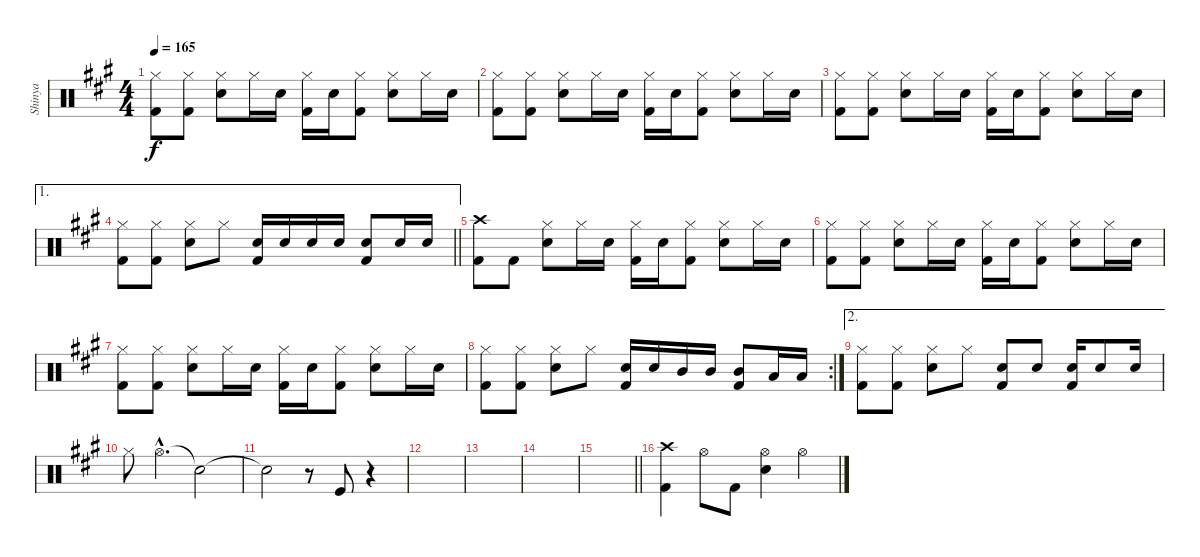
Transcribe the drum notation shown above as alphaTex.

\track ("Shinya" "Shinya") {instrument percussion}
\staff {score}
\articulation defaults
\ts (4 4)
\tempo 165
\clef neutral
\ks a
("Hi-Hat (closed)" "Kick (hit) 2").8{dy f} ("Hi-Hat (closed)" "Kick (hit) 2").8 ("Hi-Hat (closed)" "Snare (hit) 2").8 "Hi-Hat (closed)".16 "Snare (hit) 2".16 ("Hi-Hat (closed)" "Kick (hit) 2").16 "Snare (hit) 2".16 ("Hi-Hat (closed)" "Kick (hit) 2").8 ("Hi-Hat (closed)" "Snare (hit) 2").8 "Hi-Hat (closed)".16 "Snare (hit) 2".16 |
("Hi-Hat (closed)" "Kick (hit) 2").8 ("Hi-Hat (closed)" "Kick (hit) 2").8 ("Hi-Hat (closed)" "Snare (hit) 2").8 "Hi-Hat (closed)".16 "Snare (hit) 2".16 ("Hi-Hat (closed)" "Kick (hit) 2").16 "Snare (hit) 2".16 ("Hi-Hat (closed)" "Kick (hit) 2").8 ("Hi-Hat (closed)" "Snare (hit) 2").8 "Hi-Hat (closed)".16 "Snare (hit) 2".16 |
("Hi-Hat (closed)" "Kick (hit) 2").8 ("Hi-Hat (closed)" "Kick (hit) 2").8 ("Hi-Hat (closed)" "Snare (hit) 2").8 "Hi-Hat (closed)".16 "Snare (hit) 2".16 ("Hi-Hat (closed)" "Kick (hit) 2").16 "Snare (hit) 2".16 ("Hi-Hat (closed)" "Kick (hit) 2").8 ("Hi-Hat (closed)" "Snare (hit) 2").8 "Hi-Hat (closed)".16 "Snare (hit) 2".16 |
\ae 1
\barLineRight lightlight
("Hi-Hat (closed)" "Kick (hit) 2").8 ("Hi-Hat (closed)" "Kick (hit) 2").8 ("Hi-Hat (closed)" "Snare (hit) 2").8 "Hi-Hat (closed)".8 ("Snare (hit) 2" "Kick (hit) 2").16 "Snare (hit) 2".16 "Snare (hit) 2".16 "Snare (hit) 2".16 ("Snare (hit) 2" "Kick (hit) 2").8 "Snare (hit) 2".16 "Snare (hit) 2".16 |
("Crash high (hit)" "Kick (hit) 2").8 "Kick (hit) 2".8 ("Hi-Hat (closed)" "Snare (hit) 2").8 "Hi-Hat (closed)".16 "Snare (hit) 2".16 ("Hi-Hat (closed)" "Kick (hit) 2").16 "Snare (hit) 2".16 ("Hi-Hat (closed)" "Kick (hit) 2").8 ("Hi-Hat (closed)" "Snare (hit) 2").8 "Hi-Hat (closed)".16 "Snare (hit) 2".16 |
("Hi-Hat (closed)" "Kick (hit) 2").8 ("Hi-Hat (closed)" "Kick (hit) 2").8 ("Hi-Hat (closed)" "Snare (hit) 2").8 "Hi-Hat (closed)".16 "Snare (hit) 2".16 ("Hi-Hat (closed)" "Kick (hit) 2").16 "Snare (hit) 2".16 ("Hi-Hat (closed)" "Kick (hit) 2").8 ("Hi-Hat (closed)" "Snare (hit) 2").8 "Hi-Hat (closed)".16 "Snare (hit) 2".16 |
("Hi-Hat (closed)" "Kick (hit) 2").8 ("Hi-Hat (closed)" "Kick (hit) 2").8 ("Hi-Hat (closed)" "Snare (hit) 2").8 "Hi-Hat (closed)".16 "Snare (hit) 2".16 ("Hi-Hat (closed)" "Kick (hit) 2").16 "Snare (hit) 2".16 ("Hi-Hat (closed)" "Kick (hit) 2").8 ("Hi-Hat (closed)" "Snare (hit) 2").8 "Hi-Hat (closed)".16 "Snare (hit) 2".16 |
\rc 2
("Hi-Hat (closed)" "Kick (hit) 2").8 ("Hi-Hat (closed)" "Kick (hit) 2").8 ("Hi-Hat (closed)" "Snare (hit) 2").8 "Hi-Hat (closed)".8 ("Snare (hit) 2" "Kick (hit) 2").16 "Snare (hit) 2".16 "Mid Tom (hit)".16 "Mid Tom (hit)".16 ("Mid Tom (hit)" "Kick (hit) 2").8 "Low Tom (hit)".16 "Low Tom (hit)".16 |
\ae 2
("Hi-Hat (closed)" "Kick (hit) 2").8 ("Hi-Hat (closed)" "Kick (hit) 2").8 ("Hi-Hat (closed)" "Snare (hit) 2").8 "Hi-Hat (closed)".8 ("Snare (hit) 2" "Kick (hit) 2").8 "Snare (hit) 2".8 ("Snare (hit) 2" "Kick (hit) 2").16 "Snare (hit) 2".8 "Snare (hit) 2".16 |
"Hi-Hat (closed)".8 "Hi-Hat (open)"{hac}.4{d} "Snare (hit)"{t}.2 |
"Snare (hit)"{t}.2 r.8 "Kick (hit)".8 r.4 |
|
|
|
\barLineRight lightlight
|
("Crash high (hit)" "Kick (hit) 2").4 "Hi-Hat (open)".8 "Kick (hit) 2".8 ("Hi-Hat (open)" "Snare (hit) 2").4 "Hi-Hat (open)".4
